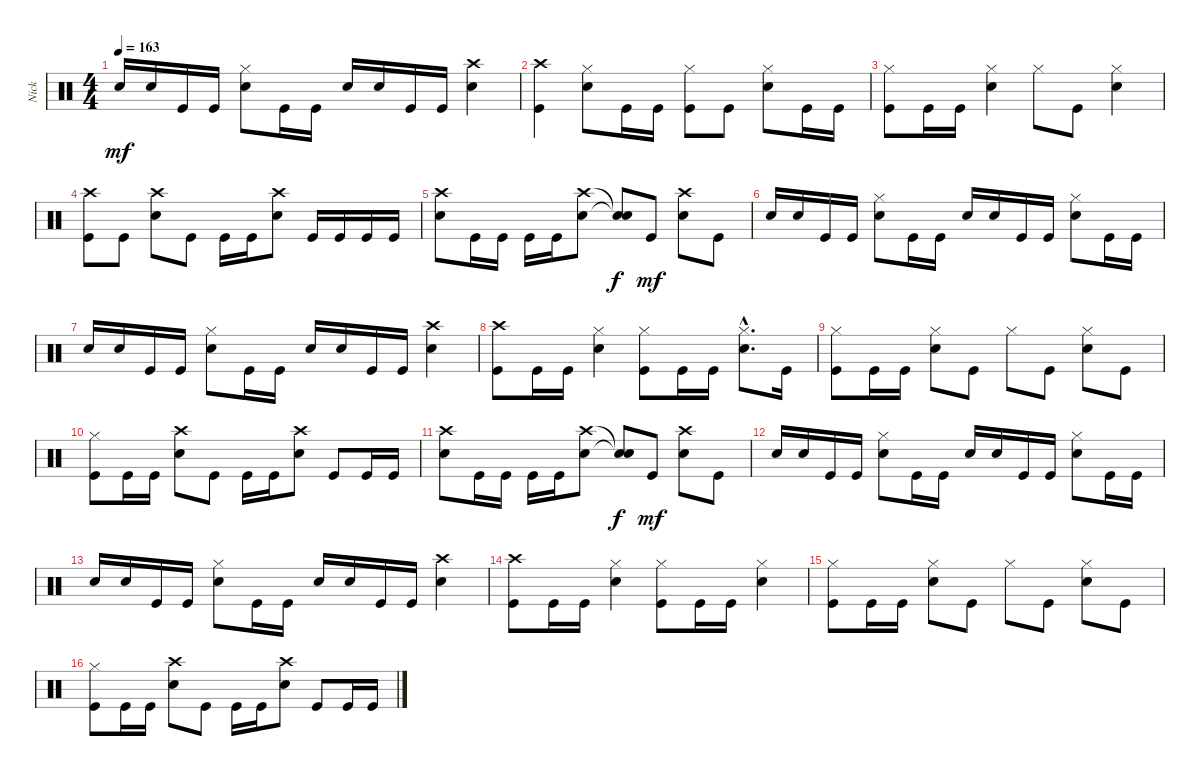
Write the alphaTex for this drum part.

\track ("Nick" "Nick") {instrument percussion}
\staff {score}
\articulation defaults
\ts (4 4)
\tempo 163
\clef neutral
\ks c "Snare (hit) 2".16{dy mf} "Snare (hit) 2".16 "Kick (hit)".16 "Kick (hit)".16
("Hi-Hat (closed)" "Snare (hit) 2").8 "Kick (hit)".16 "Kick (hit)".16 "Snare (hit) 2".16 "Snare (hit) 2".16 "Kick (hit)".16 "Kick (hit)".16 ("Crash high (hit)" "Snare (hit) 2").4 |
("Kick (hit)" "Crash high (hit)").4 ("Hi-Hat (closed)" "Snare (hit) 2").8 "Kick (hit)".16 "Kick (hit)".16 ("Kick (hit)" "Hi-Hat (closed)").8 "Kick (hit)".8 ("Hi-Hat (closed)" "Snare (hit) 2").8 "Kick (hit)".16 "Kick (hit)".16 |
("Kick (hit)" "Hi-Hat (closed)").8 "Kick (hit)".16 "Kick (hit)".16 ("Hi-Hat (closed)" "Snare (hit) 2").4 "Hi-Hat (closed)".8 "Kick (hit)".8 ("Hi-Hat (closed)" "Snare (hit) 2").4 |
("Kick (hit)" "Crash high (hit)").8 "Kick (hit)".8 ("Crash high (hit)" "Snare (hit) 2").8 "Kick (hit)".8 "Kick (hit)".16 "Kick (hit)".16 ("Crash high (hit)" "Snare (hit) 2").8 "Kick (hit)".16 "Kick (hit)".16 "Kick (hit)".16 "Kick (hit)".16 |
("Crash high (hit)" "Snare (hit) 2").8 "Kick (hit)".16 "Kick (hit)".16 "Kick (hit)".16 "Kick (hit)".16 ("Crash high (hit)" "Snare (hit) 2").8 ("Snare (hit)"{t} "Snare (hit)"{t}).8{dy f} "Kick (hit)".8{dy mf} ("Crash high (hit)" "Snare (hit) 2").8 "Kick (hit)".8 |
"Snare (hit) 2".16 "Snare (hit) 2".16 "Kick (hit)".16 "Kick (hit)".16 ("Hi-Hat (closed)" "Snare (hit) 2").8 "Kick (hit)".16 "Kick (hit)".16 "Snare (hit) 2".16 "Snare (hit) 2".16 "Kick (hit)".16 "Kick (hit)".16 ("Hi-Hat (closed)" "Snare (hit) 2").8 "Kick (hit)".16 "Kick (hit)".16 |
"Snare (hit) 2".16 "Snare (hit) 2".16 "Kick (hit)".16 "Kick (hit)".16 ("Hi-Hat (closed)" "Snare (hit) 2").8 "Kick (hit)".16 "Kick (hit)".16 "Snare (hit) 2".16 "Snare (hit) 2".16 "Kick (hit)".16 "Kick (hit)".16 ("Crash high (hit)" "Snare (hit) 2").4 |
("Kick (hit)" "Crash high (hit)").8 "Kick (hit)".16 "Kick (hit)".16 ("Hi-Hat (closed)" "Snare (hit) 2").4 ("Kick (hit)" "Hi-Hat (closed)").8 "Kick (hit)".16 "Kick (hit)".16 ("Hi-Hat (closed)"{hac} "Snare (hit) 2"{hac}).8{d} "Kick (hit)".16 |
("Kick (hit)" "Hi-Hat (closed)").8 "Kick (hit)".16 "Kick (hit)".16 ("Hi-Hat (closed)" "Snare (hit) 2").8 "Kick (hit)".8 "Hi-Hat (closed)".8 "Kick (hit)".8 ("Hi-Hat (closed)" "Snare (hit) 2").8 "Kick (hit)".8 |
("Kick (hit)" "Hi-Hat (closed)").8 "Kick (hit)".16 "Kick (hit)".16 ("Crash high (hit)" "Snare (hit) 2").8 "Kick (hit)".8 "Kick (hit)".16 "Kick (hit)".16 ("Crash high (hit)" "Snare (hit) 2").8 "Kick (hit)".8 "Kick (hit)".16 "Kick (hit)".16 |
("Crash high (hit)" "Snare (hit) 2").8 "Kick (hit)".16 "Kick (hit)".16 "Kick (hit)".16 "Kick (hit)".16 ("Crash high (hit)" "Snare (hit) 2").8 ("Snare (hit)"{t} "Snare (hit)"{t}).8{dy f} "Kick (hit)".8{dy mf} ("Crash high (hit)" "Snare (hit) 2").8 "Kick (hit)".8 |
"Snare (hit) 2".16 "Snare (hit) 2".16 "Kick (hit)".16 "Kick (hit)".16 ("Hi-Hat (closed)" "Snare (hit) 2").8 "Kick (hit)".16 "Kick (hit)".16 "Snare (hit) 2".16 "Snare (hit) 2".16 "Kick (hit)".16 "Kick (hit)".16 ("Hi-Hat (closed)" "Snare (hit) 2").8 "Kick (hit)".16 "Kick (hit)".16 |
"Snare (hit) 2".16 "Snare (hit) 2".16 "Kick (hit)".16 "Kick (hit)".16 ("Hi-Hat (closed)" "Snare (hit) 2").8 "Kick (hit)".16 "Kick (hit)".16 "Snare (hit) 2".16 "Snare (hit) 2".16 "Kick (hit)".16 "Kick (hit)".16 ("Crash high (hit)" "Snare (hit) 2").4 |
("Kick (hit)" "Crash high (hit)").8 "Kick (hit)".16 "Kick (hit)".16 ("Hi-Hat (closed)" "Snare (hit) 2").4 ("Kick (hit)" "Hi-Hat (closed)").8 "Kick (hit)".16 "Kick (hit)".16 ("Hi-Hat (closed)" "Snare (hit) 2").4 |
("Kick (hit)" "Hi-Hat (closed)").8 "Kick (hit)".16 "Kick (hit)".16 ("Hi-Hat (closed)" "Snare (hit) 2").8 "Kick (hit)".8 "Hi-Hat (closed)".8 "Kick (hit)".8 ("Hi-Hat (closed)" "Snare (hit) 2").8 "Kick (hit)".8 |
("Kick (hit)" "Hi-Hat (closed)").8 "Kick (hit)".16 "Kick (hit)".16 ("Crash high (hit)" "Snare (hit) 2").8 "Kick (hit)".8 "Kick (hit)".16 "Kick (hit)".16 ("Crash high (hit)" "Snare (hit) 2").8 "Kick (hit)".8 "Kick (hit)".16 "Kick (hit)".16
